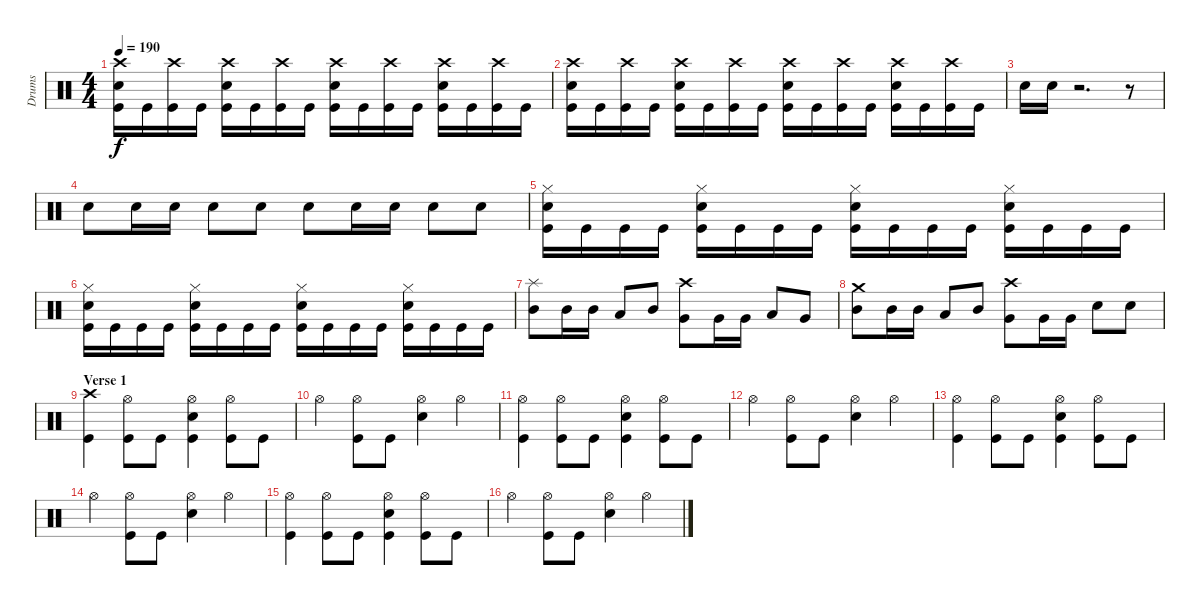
\track ("Drums" "Drums") {instrument percussion}
\staff {score}
\articulation defaults
\ts (4 4)
\tempo 190
\clef neutral
\ks c
("Crash high (hit)" "Snare (hit) 2" "Kick (hit)").16{dy f} "Kick (hit)".16 ("Crash high (hit)" "Kick (hit)").16 "Kick (hit)".16 ("Crash high (hit)" "Snare (hit) 2" "Kick (hit)").16 "Kick (hit)".16 ("Crash high (hit)" "Kick (hit)").16 "Kick (hit)".16 ("Crash high (hit)" "Snare (hit) 2" "Kick (hit)").16 "Kick (hit)".16 ("Crash high (hit)" "Kick (hit)").16 "Kick (hit)".16 ("Crash high (hit)" "Snare (hit) 2" "Kick (hit)").16 "Kick (hit)".16 ("Crash high (hit)" "Kick (hit)").16 "Kick (hit)".16 |
("Crash high (hit)" "Snare (hit) 2" "Kick (hit)").16 "Kick (hit)".16 ("Crash high (hit)" "Kick (hit)").16 "Kick (hit)".16 ("Crash high (hit)" "Snare (hit) 2" "Kick (hit)").16 "Kick (hit)".16 ("Crash high (hit)" "Kick (hit)").16 "Kick (hit)".16 ("Crash high (hit)" "Snare (hit) 2" "Kick (hit)").16 "Kick (hit)".16 ("Crash high (hit)" "Kick (hit)").16 "Kick (hit)".16 ("Crash high (hit)" "Snare (hit) 2" "Kick (hit)").16 "Kick (hit)".16 ("Crash high (hit)" "Kick (hit)").16 "Kick (hit)".16 |
"Snare (hit) 2".16 "Snare (hit) 2".16 r.2{d} r.8 |
"Snare (hit) 2".8 "Snare (hit) 2".16 "Snare (hit) 2".16 "Snare (hit) 2".8 "Snare (hit) 2".8 "Snare (hit) 2".8 "Snare (hit) 2".16 "Snare (hit) 2".16 "Snare (hit) 2".8 "Snare (hit) 2".8 |
("Hi-Hat (closed)" "Snare (hit) 2" "Kick (hit)").16 "Kick (hit)".16 "Kick (hit)".16 "Kick (hit)".16 ("Hi-Hat (closed)" "Snare (hit) 2" "Kick (hit)").16 "Kick (hit)".16 "Kick (hit)".16 "Kick (hit)".16 ("Hi-Hat (closed)" "Snare (hit) 2" "Kick (hit)").16 "Kick (hit)".16 "Kick (hit)".16 "Kick (hit)".16 ("Hi-Hat (closed)" "Snare (hit) 2" "Kick (hit)").16 "Kick (hit)".16 "Kick (hit)".16 "Kick (hit)".16 |
("Hi-Hat (closed)" "Snare (hit) 2" "Kick (hit)").16 "Kick (hit)".16 "Kick (hit)".16 "Kick (hit)".16 ("Hi-Hat (closed)" "Snare (hit) 2" "Kick (hit)").16 "Kick (hit)".16 "Kick (hit)".16 "Kick (hit)".16 ("Hi-Hat (closed)" "Snare (hit) 2" "Kick (hit)").16 "Kick (hit)".16 "Kick (hit)".16 "Kick (hit)".16 ("Hi-Hat (closed)" "Snare (hit) 2" "Kick (hit)").16 "Kick (hit)".16 "Kick (hit)".16 "Kick (hit)".16 |
("Splash (hit)" "Mid Tom (hit)").8 "Mid Tom (hit)".16 "Mid Tom (hit)".16 "Low Tom (hit)".8 "Mid Tom (hit)".8 ("Crash high (hit)" "Very Low Tom (hit)").8 "Very Low Tom (hit)".16 "Very Low Tom (hit)".16 "Low Floor Tom (hit)".8 "Very Low Tom (hit)".8 |
("Crash medium (hit)" "Mid Tom (hit)").8 "Mid Tom (hit)".16 "Mid Tom (hit)".16 "Low Tom (hit)".8 "Mid Tom (hit)".8 ("Crash high (hit)" "Very Low Tom (hit)").8 "Very Low Tom (hit)".16 "Very Low Tom (hit)".16 "Snare (hit) 2".8 "Snare (hit) 2".8 |
\section ("" "Verse 1")
("Crash high (hit)" "Kick (hit)").4 ("Hi-Hat (open)" "Kick (hit)").8 "Kick (hit)".8 ("Hi-Hat (open)" "Snare (hit) 2" "Kick (hit)").4 ("Hi-Hat (open)" "Kick (hit)").8 "Kick (hit)".8 |
"Hi-Hat (open)".4 ("Hi-Hat (open)" "Kick (hit)").8 "Kick (hit)".8 ("Hi-Hat (open)" "Snare (hit) 2").4 "Hi-Hat (open)".4 |
("Hi-Hat (open)" "Kick (hit)").4 ("Hi-Hat (open)" "Kick (hit)").8 "Kick (hit)".8 ("Hi-Hat (open)" "Snare (hit) 2" "Kick (hit)").4 ("Hi-Hat (open)" "Kick (hit)").8 "Kick (hit)".8 |
"Hi-Hat (open)".4 ("Hi-Hat (open)" "Kick (hit)").8 "Kick (hit)".8 ("Hi-Hat (open)" "Snare (hit) 2").4 "Hi-Hat (open)".4 |
("Hi-Hat (open)" "Kick (hit)").4 ("Hi-Hat (open)" "Kick (hit)").8 "Kick (hit)".8 ("Hi-Hat (open)" "Snare (hit) 2" "Kick (hit)").4 ("Hi-Hat (open)" "Kick (hit)").8 "Kick (hit)".8 |
"Hi-Hat (open)".4 ("Hi-Hat (open)" "Kick (hit)").8 "Kick (hit)".8 ("Hi-Hat (open)" "Snare (hit) 2").4 "Hi-Hat (open)".4 |
("Hi-Hat (open)" "Kick (hit)").4 ("Hi-Hat (open)" "Kick (hit)").8 "Kick (hit)".8 ("Hi-Hat (open)" "Snare (hit) 2" "Kick (hit)").4 ("Hi-Hat (open)" "Kick (hit)").8 "Kick (hit)".8 |
"Hi-Hat (open)".4 ("Hi-Hat (open)" "Kick (hit)").8 "Kick (hit)".8 ("Hi-Hat (open)" "Snare (hit) 2").4 "Hi-Hat (open)".4
